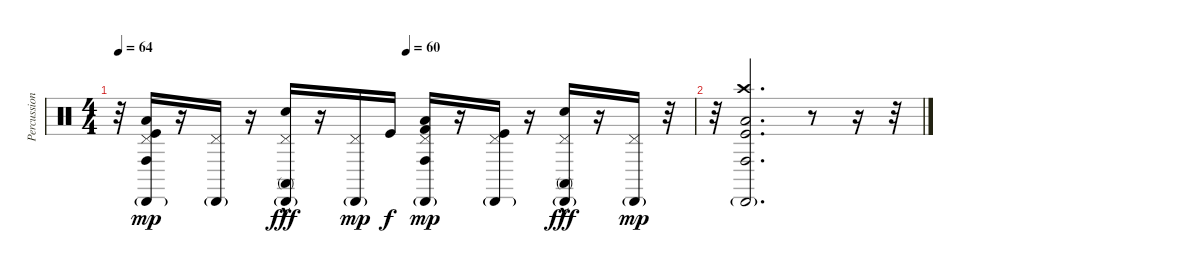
\track ("Percussion" "Percussion") {instrument percussion}
\staff {score}
\articulation defaults
\ts (4 4)
\tempo 64
\tempo (60 0.5)
\clef neutral
\ks c
r.32{dy f} ("Cabasa (hit)"{g} "Pedal Hi-Hat (hit)" "Low Floor Tom (hit)" "Conga high (hit)" "Kick (hit)").16{dy mp} r.16 ("Cabasa (hit)"{g} "Pedal Hi-Hat (hit)").16 r.16 ("Cabasa (hit)"{g} "Pedal Hi-Hat (hit)" "Snare (hit) 2"{hac} "Conga high (mute)").16{dy fff} r.16 ("Cabasa (hit)"{g} "Pedal Hi-Hat (hit)").16{dy mp} "Kick (hit)".16{dy f} ("Cabasa (hit)"{g} "Pedal Hi-Hat (hit)" "Low Floor Tom (hit)" "Conga high (hit)" "Kick (hit) 2").16{dy mp} r.16 ("Cabasa (hit)"{g} "Pedal Hi-Hat (hit)" "Kick (hit)").16 r.16 ("Cabasa (hit)"{g} "Pedal Hi-Hat (hit)" "Snare (hit) 2"{hac} "Conga high (mute)").16{dy fff} r.16 ("Cabasa (hit)"{g} "Pedal Hi-Hat (hit)").16{dy mp} r.32 |
r.32 ("Cabasa (hit)"{g} "Crash high (hit)" "Low Floor Tom (hit)" "Conga high (hit)" "Kick (hit)").2{d} r.8 r.16 r.32
